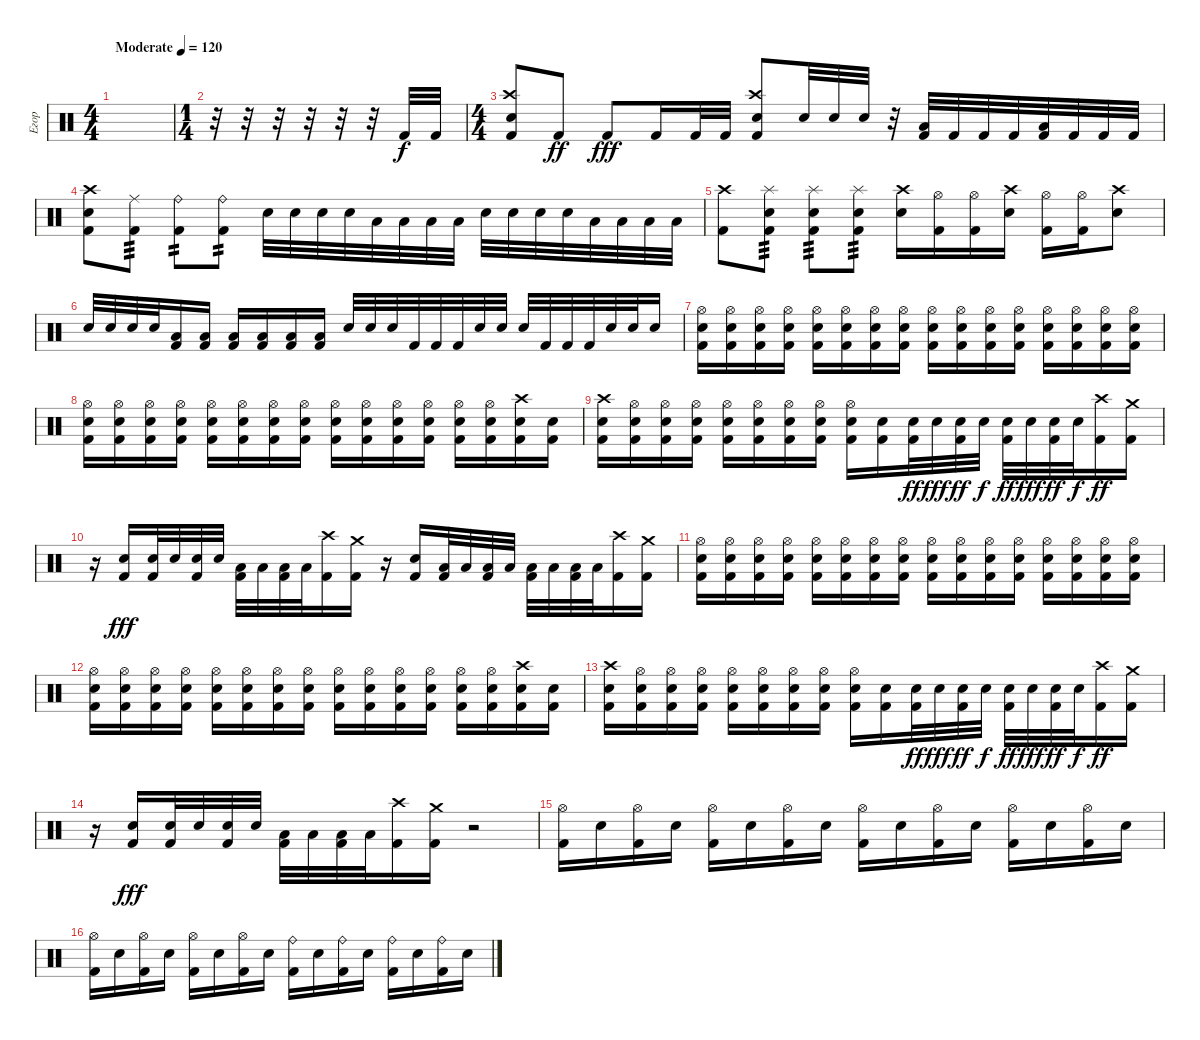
\track ("Егор" "Егор") {instrument percussion}
\staff {score}
\articulation defaults
\ts (4 4)
\tempo (120 "Moderate")
\clef neutral
\ks c
|
\ts (1 4)
r.32 r.32 r.32 r.32 r.32 r.32 "Kick (hit) 2".32 "Kick (hit) 2".32 |
\ts (4 4)
("Crash high (hit)" "Snare (hit) 2" "Kick (hit) 2").8 "Kick (hit) 2".8{dy ff} "Kick (hit) 2".8{dy fff} "Kick (hit) 2".16 "Kick (hit) 2".32 "Kick (hit) 2".32 ("Crash high (hit)" "Snare (hit) 2" "Kick (hit) 2").8 "Snare (hit) 2".32 "Snare (hit) 2".32 "Snare (hit) 2".32 r.32 ("Low Tom (hit)" "Kick (hit) 2").32 "Kick (hit) 2".32 "Kick (hit) 2".32 "Kick (hit) 2".32 ("Low Floor Tom (hit)" "Kick (hit) 2").32 "Kick (hit) 2".32 "Kick (hit) 2".32 "Kick (hit) 2".32 |
("Crash high (hit)" "Snare (hit) 2" "Kick (hit) 2").8 ("Ride (middle)" "Kick (hit) 2").8{tp 3} ("Ride (bell)" "Kick (hit) 2").8{tp 2} ("Ride (bell)" "Kick (hit) 2").8{tp 2} "Snare (hit) 2".32 "Snare (hit) 2".32 "Snare (hit) 2".32 "Snare (hit) 2".32 "Low Tom (hit)".32 "Low Tom (hit)".32 "Low Tom (hit)".32 "Low Tom (hit)".32 "Snare (hit) 2".32 "Snare (hit) 2".32 "Snare (hit) 2".32 "Snare (hit) 2".32 "Low Floor Tom (hit)".32 "Low Floor Tom (hit)".32 "Low Floor Tom (hit)".32 "Low Floor Tom (hit)".32 |
("Crash high (hit)" "Kick (hit) 2").8 ("Splash (hit)" "Snare (hit) 2" "Kick (hit) 2").8{tp 3} ("Splash (hit)" "Snare (hit) 2" "Kick (hit) 2").8{tp 3} ("Splash (hit)" "Snare (hit) 2" "Kick (hit) 2").8{tp 3} ("Crash high (hit)" "Snare (hit) 2").16 ("Hi-Hat (open)" "Kick (hit) 2").16 ("Hi-Hat (open)" "Kick (hit) 2").16 ("Crash high (hit)" "Snare (hit) 2").16 ("Hi-Hat (open)" "Kick (hit) 2").16 ("Hi-Hat (open)" "Kick (hit) 2").16 ("Crash high (hit)" "Snare (hit) 2").8 |
"Snare (hit) 2".32 "Snare (hit) 2".32 "Snare (hit) 2".32 "Snare (hit) 2".32 ("Low Tom (hit)" "Kick (hit) 2").16 ("Low Tom (hit)" "Kick (hit) 2").16 ("Low Tom (hit)" "Kick (hit) 2").16 ("Low Tom (hit)" "Kick (hit) 2").16 ("Low Floor Tom (hit)" "Kick (hit) 2").16 ("Low Floor Tom (hit)" "Kick (hit) 2").16 "Snare (hit) 2".32 "Snare (hit) 2".32 "Snare (hit) 2".32 "Kick (hit) 2".32 "Kick (hit) 2".32 "Kick (hit) 2".32 "Snare (hit) 2".32 "Snare (hit) 2".32 "Snare (hit) 2".32 "Kick (hit) 2".32 "Kick (hit) 2".32 "Kick (hit) 2".32 "Snare (hit) 2".32 "Snare (hit) 2".32 "Snare (hit) 2".16 |
("Hi-Hat (open)" "Snare (hit) 2" "Kick (hit) 2").16 ("Hi-Hat (open)" "Snare (hit) 2" "Kick (hit) 2").16 ("Hi-Hat (open)" "Snare (hit) 2" "Kick (hit) 2").16 ("Hi-Hat (open)" "Snare (hit) 2" "Kick (hit) 2").16 ("Hi-Hat (open)" "Snare (hit) 2" "Kick (hit) 2").16 ("Hi-Hat (open)" "Snare (hit) 2" "Kick (hit) 2").16 ("Hi-Hat (open)" "Snare (hit) 2" "Kick (hit) 2").16 ("Hi-Hat (open)" "Snare (hit) 2" "Kick (hit) 2").16 ("Hi-Hat (open)" "Snare (hit) 2" "Kick (hit) 2").16 ("Hi-Hat (open)" "Snare (hit) 2" "Kick (hit) 2").16 ("Hi-Hat (open)" "Snare (hit) 2" "Kick (hit) 2").16 ("Hi-Hat (open)" "Snare (hit) 2" "Kick (hit) 2").16 ("Hi-Hat (open)" "Snare (hit) 2" "Kick (hit) 2").16 ("Hi-Hat (open)" "Snare (hit) 2" "Kick (hit) 2").16 ("Hi-Hat (open)" "Snare (hit) 2" "Kick (hit) 2").16 ("Hi-Hat (open)" "Snare (hit) 2" "Kick (hit) 2").16 |
("Hi-Hat (open)" "Snare (hit) 2" "Kick (hit) 2").16 ("Hi-Hat (open)" "Snare (hit) 2" "Kick (hit) 2").16 ("Hi-Hat (open)" "Snare (hit) 2" "Kick (hit) 2").16 ("Hi-Hat (open)" "Snare (hit) 2" "Kick (hit) 2").16 ("Hi-Hat (open)" "Snare (hit) 2" "Kick (hit) 2").16 ("Hi-Hat (open)" "Snare (hit) 2" "Kick (hit) 2").16 ("Hi-Hat (open)" "Snare (hit) 2" "Kick (hit) 2").16 ("Hi-Hat (open)" "Snare (hit) 2" "Kick (hit) 2").16 ("Hi-Hat (open)" "Snare (hit) 2" "Kick (hit) 2").16 ("Hi-Hat (open)" "Snare (hit) 2" "Kick (hit) 2").16 ("Hi-Hat (open)" "Snare (hit) 2" "Kick (hit) 2").16 ("Hi-Hat (open)" "Snare (hit) 2" "Kick (hit) 2").16 ("Hi-Hat (open)" "Snare (hit) 2" "Kick (hit) 2").16 ("Hi-Hat (open)" "Snare (hit) 2" "Kick (hit) 2").16 ("Crash high (hit)" "Snare (hit) 2" "Kick (hit) 2").16 ("Snare (hit) 2" "Kick (hit) 2").16 |
("Crash high (hit)" "Snare (hit) 2" "Kick (hit) 2").16 ("Hi-Hat (open)" "Snare (hit) 2" "Kick (hit) 2").16 ("Hi-Hat (open)" "Snare (hit) 2" "Kick (hit) 2").16 ("Hi-Hat (open)" "Snare (hit) 2" "Kick (hit) 2").16 ("Hi-Hat (open)" "Snare (hit) 2" "Kick (hit) 2").16 ("Hi-Hat (open)" "Snare (hit) 2" "Kick (hit) 2").16 ("Hi-Hat (open)" "Snare (hit) 2" "Kick (hit) 2").16 ("Hi-Hat (open)" "Snare (hit) 2" "Kick (hit) 2").16 ("Hi-Hat (open)" "Snare (hit) 2" "Kick (hit) 2").16 ("Snare (hit) 2" "Kick (hit) 2").16 ("Snare (hit) 2" "Kick (hit) 2").32{dy ff} "Snare (hit) 2".32{dy fff} ("Snare (hit) 2" "Kick (hit) 2").32{dy ff} "Snare (hit) 2".32{dy f} ("Snare (hit) 2" "Kick (hit) 2").32{dy ff} "Snare (hit) 2".32{dy fff} ("Snare (hit) 2" "Kick (hit) 2").32{dy ff} "Snare (hit) 2".32{dy f} ("Crash high (hit)" "Kick (hit) 2").16{dy ff} ("Crash medium (hit)" "Kick (hit) 2").16 |
r.16 ("Snare (hit) 2" "Kick (hit) 2").16{dy fff} ("Snare (hit) 2" "Kick (hit) 2").32 "Snare (hit) 2".32 ("Snare (hit) 2" "Kick (hit) 2").32 "Snare (hit) 2".32 ("Low Tom (hit)" "Kick (hit) 2").32 "Low Tom (hit)".32 ("Low Tom (hit)" "Kick (hit) 2").32 "Low Tom (hit)".32 ("Crash high (hit)" "Kick (hit) 2").16 ("Crash medium (hit)" "Kick (hit) 2").16 r.16 ("Snare (hit) 2" "Kick (hit) 2").16 ("Low Tom (hit)" "Kick (hit) 2").32 "Low Tom (hit)".32 ("Low Tom (hit)" "Kick (hit) 2").32 "Low Tom (hit)".32 ("Low Floor Tom (hit)" "Kick (hit) 2").32 "Low Floor Tom (hit)".32 ("Low Floor Tom (hit)" "Kick (hit) 2").32 "Low Floor Tom (hit)".32 ("Crash high (hit)" "Kick (hit) 2").16 ("Crash medium (hit)" "Kick (hit) 2").16 |
("Hi-Hat (open)" "Snare (hit) 2" "Kick (hit) 2").16 ("Hi-Hat (open)" "Snare (hit) 2" "Kick (hit) 2").16 ("Hi-Hat (open)" "Snare (hit) 2" "Kick (hit) 2").16 ("Hi-Hat (open)" "Snare (hit) 2" "Kick (hit) 2").16 ("Hi-Hat (open)" "Snare (hit) 2" "Kick (hit) 2").16 ("Hi-Hat (open)" "Snare (hit) 2" "Kick (hit) 2").16 ("Hi-Hat (open)" "Snare (hit) 2" "Kick (hit) 2").16 ("Hi-Hat (open)" "Snare (hit) 2" "Kick (hit) 2").16 ("Hi-Hat (open)" "Snare (hit) 2" "Kick (hit) 2").16 ("Hi-Hat (open)" "Snare (hit) 2" "Kick (hit) 2").16 ("Hi-Hat (open)" "Snare (hit) 2" "Kick (hit) 2").16 ("Hi-Hat (open)" "Snare (hit) 2" "Kick (hit) 2").16 ("Hi-Hat (open)" "Snare (hit) 2" "Kick (hit) 2").16 ("Hi-Hat (open)" "Snare (hit) 2" "Kick (hit) 2").16 ("Hi-Hat (open)" "Snare (hit) 2" "Kick (hit) 2").16 ("Hi-Hat (open)" "Snare (hit) 2" "Kick (hit) 2").16 |
("Hi-Hat (open)" "Snare (hit) 2" "Kick (hit) 2").16 ("Hi-Hat (open)" "Snare (hit) 2" "Kick (hit) 2").16 ("Hi-Hat (open)" "Snare (hit) 2" "Kick (hit) 2").16 ("Hi-Hat (open)" "Snare (hit) 2" "Kick (hit) 2").16 ("Hi-Hat (open)" "Snare (hit) 2" "Kick (hit) 2").16 ("Hi-Hat (open)" "Snare (hit) 2" "Kick (hit) 2").16 ("Hi-Hat (open)" "Snare (hit) 2" "Kick (hit) 2").16 ("Hi-Hat (open)" "Snare (hit) 2" "Kick (hit) 2").16 ("Hi-Hat (open)" "Snare (hit) 2" "Kick (hit) 2").16 ("Hi-Hat (open)" "Snare (hit) 2" "Kick (hit) 2").16 ("Hi-Hat (open)" "Snare (hit) 2" "Kick (hit) 2").16 ("Hi-Hat (open)" "Snare (hit) 2" "Kick (hit) 2").16 ("Hi-Hat (open)" "Snare (hit) 2" "Kick (hit) 2").16 ("Hi-Hat (open)" "Snare (hit) 2" "Kick (hit) 2").16 ("Crash high (hit)" "Snare (hit) 2" "Kick (hit) 2").16 ("Snare (hit) 2" "Kick (hit) 2").16 |
("Crash high (hit)" "Snare (hit) 2" "Kick (hit) 2").16 ("Hi-Hat (open)" "Snare (hit) 2" "Kick (hit) 2").16 ("Hi-Hat (open)" "Snare (hit) 2" "Kick (hit) 2").16 ("Hi-Hat (open)" "Snare (hit) 2" "Kick (hit) 2").16 ("Hi-Hat (open)" "Snare (hit) 2" "Kick (hit) 2").16 ("Hi-Hat (open)" "Snare (hit) 2" "Kick (hit) 2").16 ("Hi-Hat (open)" "Snare (hit) 2" "Kick (hit) 2").16 ("Hi-Hat (open)" "Snare (hit) 2" "Kick (hit) 2").16 ("Hi-Hat (open)" "Snare (hit) 2" "Kick (hit) 2").16 ("Snare (hit) 2" "Kick (hit) 2").16 ("Snare (hit) 2" "Kick (hit) 2").32{dy ff} "Snare (hit) 2".32{dy fff} ("Snare (hit) 2" "Kick (hit) 2").32{dy ff} "Snare (hit) 2".32{dy f} ("Snare (hit) 2" "Kick (hit) 2").32{dy ff} "Snare (hit) 2".32{dy fff} ("Snare (hit) 2" "Kick (hit) 2").32{dy ff} "Snare (hit) 2".32{dy f} ("Crash high (hit)" "Kick (hit) 2").16{dy ff} ("Crash medium (hit)" "Kick (hit) 2").16 |
r.16 ("Snare (hit) 2" "Kick (hit) 2").16{dy fff} ("Snare (hit) 2" "Kick (hit) 2").32 "Snare (hit) 2".32 ("Snare (hit) 2" "Kick (hit) 2").32 "Snare (hit) 2".32 ("Low Tom (hit)" "Kick (hit) 2").32 "Low Tom (hit)".32 ("Low Tom (hit)" "Kick (hit) 2").32 "Low Tom (hit)".32 ("Crash high (hit)" "Kick (hit) 2").16 ("Crash medium (hit)" "Kick (hit) 2").16 r.2 |
("Hi-Hat (open)" "Kick (hit) 2").16 "Snare (hit) 2".16 ("Hi-Hat (open)" "Kick (hit) 2").16 "Snare (hit) 2".16 ("Hi-Hat (open)" "Kick (hit) 2").16 "Snare (hit) 2".16 ("Hi-Hat (open)" "Kick (hit) 2").16 "Snare (hit) 2".16 ("Hi-Hat (open)" "Kick (hit) 2").16 "Snare (hit) 2".16 ("Hi-Hat (open)" "Kick (hit) 2").16 "Snare (hit) 2".16 ("Hi-Hat (open)" "Kick (hit) 2").16 "Snare (hit) 2".16 ("Hi-Hat (open)" "Kick (hit) 2").16 "Snare (hit) 2".16 |
("Hi-Hat (open)" "Kick (hit) 2").16 "Snare (hit) 2".16 ("Hi-Hat (open)" "Kick (hit) 2").16 "Snare (hit) 2".16 ("Hi-Hat (open)" "Kick (hit) 2").16 "Snare (hit) 2".16 ("Hi-Hat (open)" "Kick (hit) 2").16 "Snare (hit) 2".16 ("Ride (bell)" "Kick (hit) 2").16 "Snare (hit) 2".16 ("Ride (bell)" "Kick (hit) 2").16 "Snare (hit) 2".16 ("Ride (bell)" "Kick (hit) 2").16 "Snare (hit) 2".16 ("Ride (bell)" "Kick (hit) 2").16 "Snare (hit) 2".16
